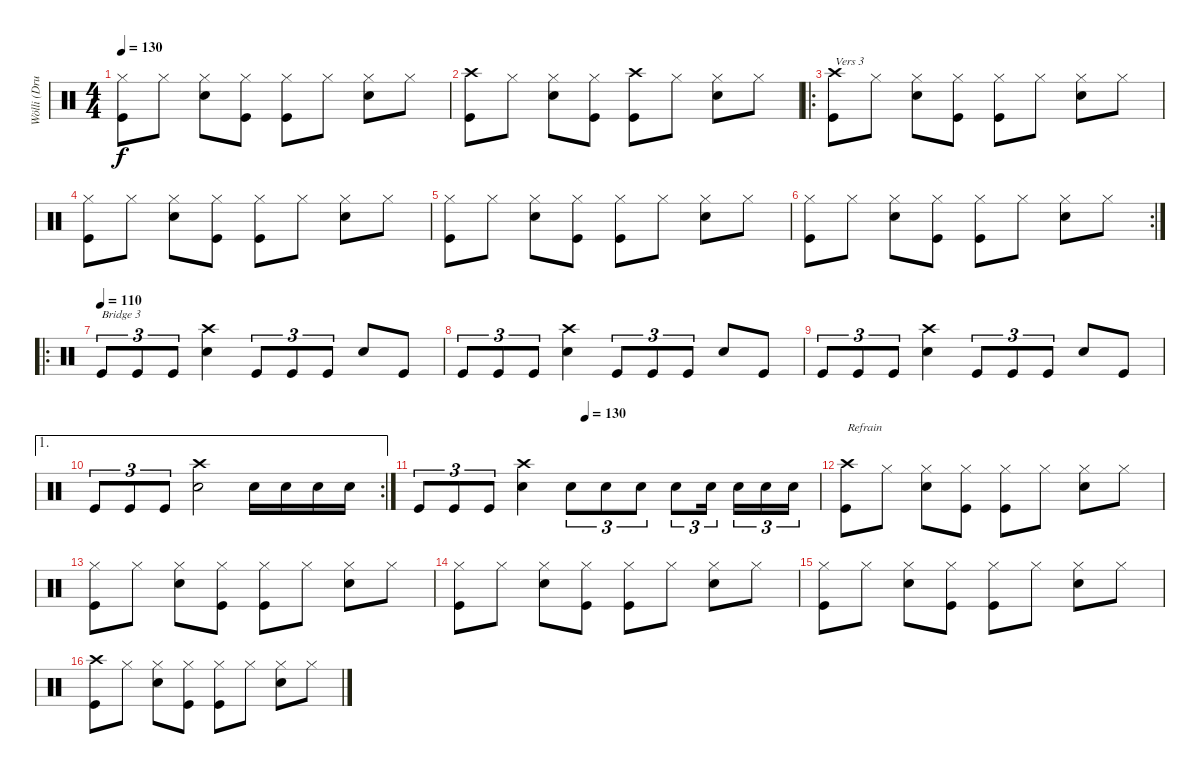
\track ("Wölli (Drums)" "Wölli (Dru") {instrument percussion}
\staff {score}
\articulation defaults
\ts (4 4)
\tempo 130
\clef neutral
\ks c
("Hi-Hat (closed)" "Kick (hit)").8{dy f} "Hi-Hat (closed)".8 ("Hi-Hat (closed)" "Snare (hit) 2").8 ("Hi-Hat (closed)" "Kick (hit)").8 ("Hi-Hat (closed)" "Kick (hit)").8 "Hi-Hat (closed)".8 ("Hi-Hat (closed)" "Snare (hit) 2").8 "Hi-Hat (closed)".8 |
("Crash high (hit)" "Kick (hit)").8 "Hi-Hat (closed)".8 ("Hi-Hat (closed)" "Snare (hit) 2").8 ("Hi-Hat (closed)" "Kick (hit)").8 ("Crash high (hit)" "Kick (hit)").8 "Hi-Hat (closed)".8 ("Hi-Hat (closed)" "Snare (hit) 2").8 "Hi-Hat (closed)".8 |
\ro
("Crash high (hit)" "Kick (hit)").8{txt "Vers 3"} "Hi-Hat (closed)".8 ("Hi-Hat (closed)" "Snare (hit) 2").8 ("Hi-Hat (closed)" "Kick (hit)").8 ("Hi-Hat (closed)" "Kick (hit)").8 "Hi-Hat (closed)".8 ("Hi-Hat (closed)" "Snare (hit) 2").8 "Hi-Hat (closed)".8 |
("Hi-Hat (closed)" "Kick (hit)").8 "Hi-Hat (closed)".8 ("Hi-Hat (closed)" "Snare (hit) 2").8 ("Hi-Hat (closed)" "Kick (hit)").8 ("Hi-Hat (closed)" "Kick (hit)").8 "Hi-Hat (closed)".8 ("Hi-Hat (closed)" "Snare (hit) 2").8 "Hi-Hat (closed)".8 |
("Hi-Hat (closed)" "Kick (hit)").8 "Hi-Hat (closed)".8 ("Hi-Hat (closed)" "Snare (hit) 2").8 ("Hi-Hat (closed)" "Kick (hit)").8 ("Hi-Hat (closed)" "Kick (hit)").8 "Hi-Hat (closed)".8 ("Hi-Hat (closed)" "Snare (hit) 2").8 "Hi-Hat (closed)".8 |
\rc 2
("Hi-Hat (closed)" "Kick (hit)").8 "Hi-Hat (closed)".8 ("Hi-Hat (closed)" "Snare (hit) 2").8 ("Hi-Hat (closed)" "Kick (hit)").8 ("Hi-Hat (closed)" "Kick (hit)").8 "Hi-Hat (closed)".8 ("Hi-Hat (closed)" "Snare (hit) 2").8 "Hi-Hat (closed)".8 |
\ro
\tempo (110)
"Kick (hit)".8{tu (3 2) txt "Bridge 3"} "Kick (hit)".8{tu (3 2)} "Kick (hit)".8{tu (3 2)} ("Crash high (hit)" "Snare (hit) 2").4 "Kick (hit)".8{tu (3 2)} "Kick (hit)".8{tu (3 2)} "Kick (hit)".8{tu (3 2)} "Snare (hit) 2".8 "Kick (hit)".8 |
"Kick (hit)".8{tu (3 2)} "Kick (hit)".8{tu (3 2)} "Kick (hit)".8{tu (3 2)} ("Crash high (hit)" "Snare (hit) 2").4 "Kick (hit)".8{tu (3 2)} "Kick (hit)".8{tu (3 2)} "Kick (hit)".8{tu (3 2)} "Snare (hit) 2".8 "Kick (hit)".8 |
"Kick (hit)".8{tu (3 2)} "Kick (hit)".8{tu (3 2)} "Kick (hit)".8{tu (3 2)} ("Crash high (hit)" "Snare (hit) 2").4 "Kick (hit)".8{tu (3 2)} "Kick (hit)".8{tu (3 2)} "Kick (hit)".8{tu (3 2)} "Snare (hit) 2".8 "Kick (hit)".8 |
\ae 1
\rc 2 "Kick (hit)".8{tu (3 2)} "Kick (hit)".8{tu (3 2)} "Kick (hit)".8{tu (3 2)}
("Crash high (hit)" "Snare (hit) 2").2 "Snare (hit) 2".16 "Snare (hit) 2".16 "Snare (hit) 2".16 "Snare (hit) 2".16 |
\tempo (130 0.4166666666666667)
"Kick (hit)".8{tu (3 2)} "Kick (hit)".8{tu (3 2)} "Kick (hit)".8{tu (3 2)} ("Crash high (hit)" "Snare (hit) 2").4 "Snare (hit) 2".8{tu (3 2)} "Snare (hit) 2".8{tu (3 2)} "Snare (hit) 2".8{tu (3 2)} "Snare (hit) 2".8{tu (3 2)} "Snare (hit) 2".16{tu (3 2)} "Snare (hit) 2".16{tu (3 2)} "Snare (hit) 2".16{tu (3 2)} "Snare (hit) 2".16{tu (3 2)} |
("Crash high (hit)" "Kick (hit)").8{txt "Refrain"} "Hi-Hat (closed)".8 ("Hi-Hat (closed)" "Snare (hit) 2").8 ("Hi-Hat (closed)" "Kick (hit)").8 ("Hi-Hat (closed)" "Kick (hit)").8 "Hi-Hat (closed)".8 ("Hi-Hat (closed)" "Snare (hit) 2").8 "Hi-Hat (closed)".8 |
("Hi-Hat (closed)" "Kick (hit)").8 "Hi-Hat (closed)".8 ("Hi-Hat (closed)" "Snare (hit) 2").8 ("Hi-Hat (closed)" "Kick (hit)").8 ("Hi-Hat (closed)" "Kick (hit)").8 "Hi-Hat (closed)".8 ("Hi-Hat (closed)" "Snare (hit) 2").8 "Hi-Hat (closed)".8 |
("Hi-Hat (closed)" "Kick (hit)").8 "Hi-Hat (closed)".8 ("Hi-Hat (closed)" "Snare (hit) 2").8 ("Hi-Hat (closed)" "Kick (hit)").8 ("Hi-Hat (closed)" "Kick (hit)").8 "Hi-Hat (closed)".8 ("Hi-Hat (closed)" "Snare (hit) 2").8 "Hi-Hat (closed)".8 |
("Hi-Hat (closed)" "Kick (hit)").8 "Hi-Hat (closed)".8 ("Hi-Hat (closed)" "Snare (hit) 2").8 ("Hi-Hat (closed)" "Kick (hit)").8 ("Hi-Hat (closed)" "Kick (hit)").8 "Hi-Hat (closed)".8 ("Hi-Hat (closed)" "Snare (hit) 2").8 "Hi-Hat (closed)".8 |
("Crash high (hit)" "Kick (hit)").8 "Hi-Hat (closed)".8 ("Hi-Hat (closed)" "Snare (hit) 2").8 ("Hi-Hat (closed)" "Kick (hit)").8 ("Hi-Hat (closed)" "Kick (hit)").8 "Hi-Hat (closed)".8 ("Hi-Hat (closed)" "Snare (hit) 2").8 "Hi-Hat (closed)".8
